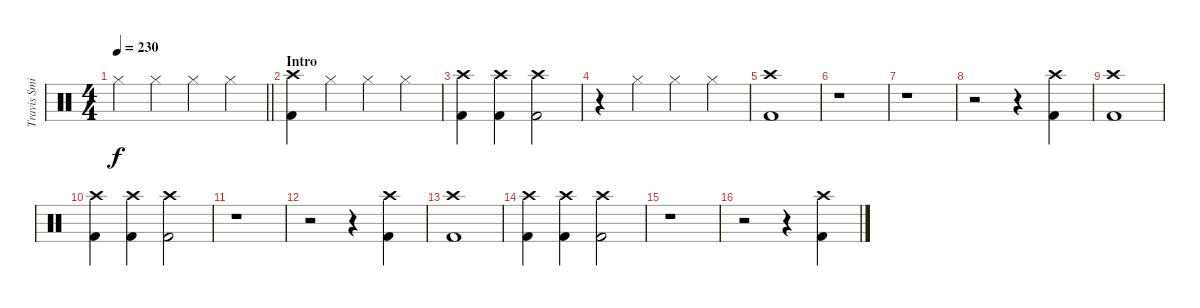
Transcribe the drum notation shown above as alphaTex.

\track ("Travis Smith (Drums)" "Travis Smi") {instrument percussion}
\staff {score}
\articulation defaults
\ts (4 4)
\tempo 230
\clef neutral
\barLineRight lightlight
\ks c "Hi-Hat (closed)".4{dy f} "Hi-Hat (closed)".4 "Hi-Hat (closed)".4 "Hi-Hat (closed)".4
|
\section ("" "Intro")
("Crash high (hit)" "Kick (hit) 2").4 "Hi-Hat (closed)".4 "Hi-Hat (closed)".4 "Hi-Hat (closed)".4 |
("Crash high (hit)" "Kick (hit) 2").4 ("Crash high (hit)" "Kick (hit) 2").4 ("Crash high (hit)" "Kick (hit) 2").2 |
r.4 "Hi-Hat (closed)".4 "Hi-Hat (closed)".4 "Hi-Hat (closed)".4 |
("Crash high (hit)" "Kick (hit) 2").1 |
r.1 |
r.1 |
r.2 r.4 ("Crash high (hit)" "Kick (hit) 2").4 |
("Crash high (hit)" "Kick (hit) 2").1 |
("Crash high (hit)" "Kick (hit) 2").4 ("Crash high (hit)" "Kick (hit) 2").4 ("Crash high (hit)" "Kick (hit) 2").2 |
r.1 |
r.2 r.4 ("Crash high (hit)" "Kick (hit) 2").4 |
("Crash high (hit)" "Kick (hit) 2").1 |
("Crash high (hit)" "Kick (hit) 2").4 ("Crash high (hit)" "Kick (hit) 2").4 ("Crash high (hit)" "Kick (hit) 2").2 |
r.1 |
r.2 r.4 ("Crash high (hit)" "Kick (hit) 2").4
